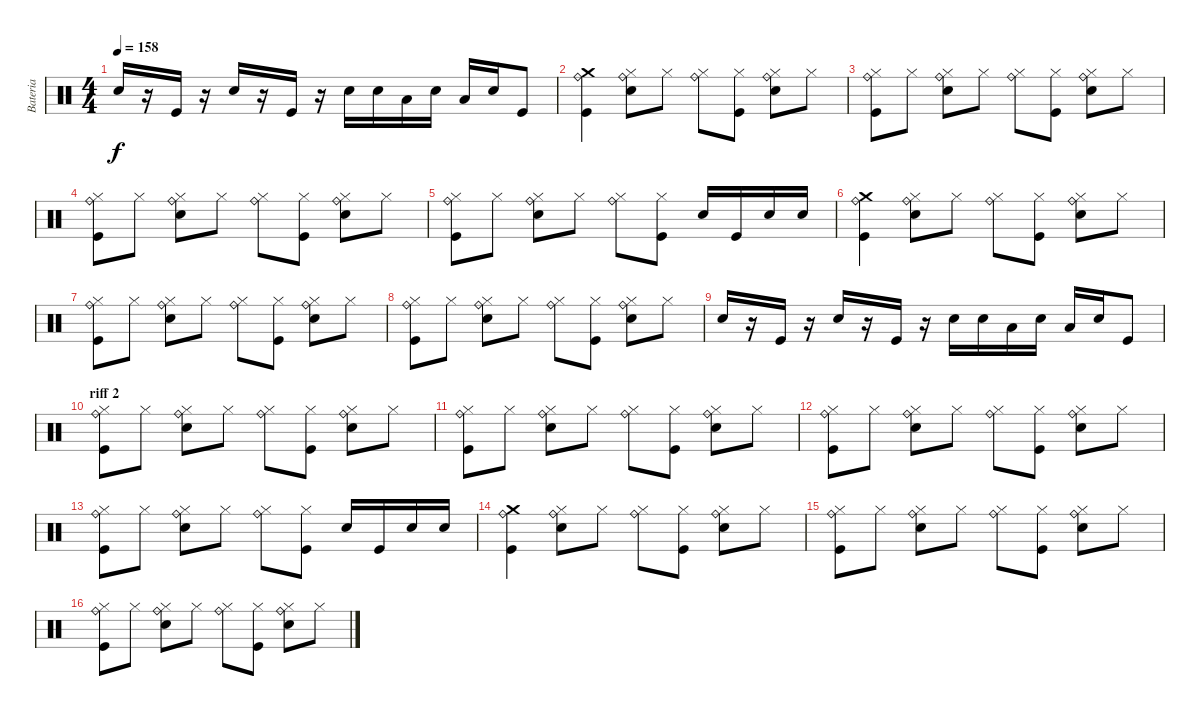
\track ("Bateria" "Bateria") {instrument percussion}
\staff {score}
\articulation defaults
\ts (4 4)
\tempo 158
\clef neutral
\ks c "Electric Snare (hit)".16{dy f}
r.16 "Kick (hit)".16 r.16 "Electric Snare (hit)".16 r.16 "Kick (hit)".16 r.16 "Electric Snare (hit)".16 "Electric Snare (hit)".16 "Low Tom (hit)".16 "Electric Snare (hit)".16 "Low Tom (hit)".16 "Electric Snare (hit)".16 "Kick (hit)".8 |
("Kick (hit)" "Crash medium (hit)" "Ride (bell)").4 ("Electric Snare (hit)" "Hi-Hat (closed)" "Ride (bell)").8 "Hi-Hat (closed)".8 ("Hi-Hat (closed)" "Ride (bell)").8 ("Kick (hit)" "Hi-Hat (closed)").8 ("Electric Snare (hit)" "Hi-Hat (closed)" "Ride (bell)").8 "Hi-Hat (closed)".8 |
("Kick (hit)" "Hi-Hat (closed)" "Ride (bell)").8 "Hi-Hat (closed)".8 ("Electric Snare (hit)" "Hi-Hat (closed)" "Ride (bell)").8 "Hi-Hat (closed)".8 ("Hi-Hat (closed)" "Ride (bell)").8 ("Kick (hit)" "Hi-Hat (closed)").8 ("Electric Snare (hit)" "Hi-Hat (closed)" "Ride (bell)").8 "Hi-Hat (closed)".8 |
("Kick (hit)" "Hi-Hat (closed)" "Ride (bell)").8 "Hi-Hat (closed)".8 ("Electric Snare (hit)" "Hi-Hat (closed)" "Ride (bell)").8 "Hi-Hat (closed)".8 ("Hi-Hat (closed)" "Ride (bell)").8 ("Kick (hit)" "Hi-Hat (closed)").8 ("Electric Snare (hit)" "Hi-Hat (closed)" "Ride (bell)").8 "Hi-Hat (closed)".8 |
("Kick (hit)" "Hi-Hat (closed)" "Ride (bell)").8 "Hi-Hat (closed)".8 ("Electric Snare (hit)" "Hi-Hat (closed)" "Ride (bell)").8 "Hi-Hat (closed)".8 ("Hi-Hat (closed)" "Ride (bell)").8 ("Kick (hit)" "Hi-Hat (closed)").8 "Electric Snare (hit)".16 "Kick (hit)".16 "Snare (hit) 2".16 "Electric Snare (hit)".16 |
("Kick (hit)" "Crash medium (hit)" "Ride (bell)").4 ("Electric Snare (hit)" "Hi-Hat (closed)" "Ride (bell)").8 "Hi-Hat (closed)".8 ("Hi-Hat (closed)" "Ride (bell)").8 ("Kick (hit)" "Hi-Hat (closed)").8 ("Electric Snare (hit)" "Hi-Hat (closed)" "Ride (bell)").8 "Hi-Hat (closed)".8 |
("Kick (hit)" "Hi-Hat (closed)" "Ride (bell)").8 "Hi-Hat (closed)".8 ("Electric Snare (hit)" "Hi-Hat (closed)" "Ride (bell)").8 "Hi-Hat (closed)".8 ("Hi-Hat (closed)" "Ride (bell)").8 ("Kick (hit)" "Hi-Hat (closed)").8 ("Electric Snare (hit)" "Hi-Hat (closed)" "Ride (bell)").8 "Hi-Hat (closed)".8 |
("Kick (hit)" "Hi-Hat (closed)" "Ride (bell)").8 "Hi-Hat (closed)".8 ("Electric Snare (hit)" "Hi-Hat (closed)" "Ride (bell)").8 "Hi-Hat (closed)".8 ("Hi-Hat (closed)" "Ride (bell)").8 ("Kick (hit)" "Hi-Hat (closed)").8 ("Electric Snare (hit)" "Hi-Hat (closed)" "Ride (bell)").8 "Hi-Hat (closed)".8 |
"Electric Snare (hit)".16 r.16 "Kick (hit)".16 r.16 "Electric Snare (hit)".16 r.16 "Kick (hit)".16 r.16 "Electric Snare (hit)".16 "Electric Snare (hit)".16 "Low Tom (hit)".16 "Electric Snare (hit)".16 "Low Tom (hit)".16 "Electric Snare (hit)".16 "Kick (hit)".8 |
\section ("" "riff 2")
("Kick (hit)" "Hi-Hat (closed)" "Ride (bell)").8 "Hi-Hat (closed)".8 ("Electric Snare (hit)" "Hi-Hat (closed)" "Ride (bell)").8 "Hi-Hat (closed)".8 ("Hi-Hat (closed)" "Ride (bell)").8 ("Kick (hit)" "Hi-Hat (closed)").8 ("Electric Snare (hit)" "Hi-Hat (closed)" "Ride (bell)").8 "Hi-Hat (closed)".8 |
("Kick (hit)" "Hi-Hat (closed)" "Ride (bell)").8 "Hi-Hat (closed)".8 ("Electric Snare (hit)" "Hi-Hat (closed)" "Ride (bell)").8 "Hi-Hat (closed)".8 ("Hi-Hat (closed)" "Ride (bell)").8 ("Kick (hit)" "Hi-Hat (closed)").8 ("Electric Snare (hit)" "Hi-Hat (closed)" "Ride (bell)").8 "Hi-Hat (closed)".8 |
("Kick (hit)" "Hi-Hat (closed)" "Ride (bell)").8 "Hi-Hat (closed)".8 ("Electric Snare (hit)" "Hi-Hat (closed)" "Ride (bell)").8 "Hi-Hat (closed)".8 ("Hi-Hat (closed)" "Ride (bell)").8 ("Kick (hit)" "Hi-Hat (closed)").8 ("Electric Snare (hit)" "Hi-Hat (closed)" "Ride (bell)").8 "Hi-Hat (closed)".8 |
("Kick (hit)" "Hi-Hat (closed)" "Ride (bell)").8 "Hi-Hat (closed)".8 ("Electric Snare (hit)" "Hi-Hat (closed)" "Ride (bell)").8 "Hi-Hat (closed)".8 ("Hi-Hat (closed)" "Ride (bell)").8 ("Kick (hit)" "Hi-Hat (closed)").8 "Electric Snare (hit)".16 "Kick (hit)".16 "Snare (hit) 2".16 "Electric Snare (hit)".16 |
("Kick (hit)" "Crash medium (hit)" "Ride (bell)").4 ("Electric Snare (hit)" "Hi-Hat (closed)" "Ride (bell)").8 "Hi-Hat (closed)".8 ("Hi-Hat (closed)" "Ride (bell)").8 ("Kick (hit)" "Hi-Hat (closed)").8 ("Electric Snare (hit)" "Hi-Hat (closed)" "Ride (bell)").8 "Hi-Hat (closed)".8 |
("Kick (hit)" "Hi-Hat (closed)" "Ride (bell)").8 "Hi-Hat (closed)".8 ("Electric Snare (hit)" "Hi-Hat (closed)" "Ride (bell)").8 "Hi-Hat (closed)".8 ("Hi-Hat (closed)" "Ride (bell)").8 ("Kick (hit)" "Hi-Hat (closed)").8 ("Electric Snare (hit)" "Hi-Hat (closed)" "Ride (bell)").8 "Hi-Hat (closed)".8 |
("Kick (hit)" "Hi-Hat (closed)" "Ride (bell)").8 "Hi-Hat (closed)".8 ("Electric Snare (hit)" "Hi-Hat (closed)" "Ride (bell)").8 "Hi-Hat (closed)".8 ("Hi-Hat (closed)" "Ride (bell)").8 ("Kick (hit)" "Hi-Hat (closed)").8 ("Electric Snare (hit)" "Hi-Hat (closed)" "Ride (bell)").8 "Hi-Hat (closed)".8
